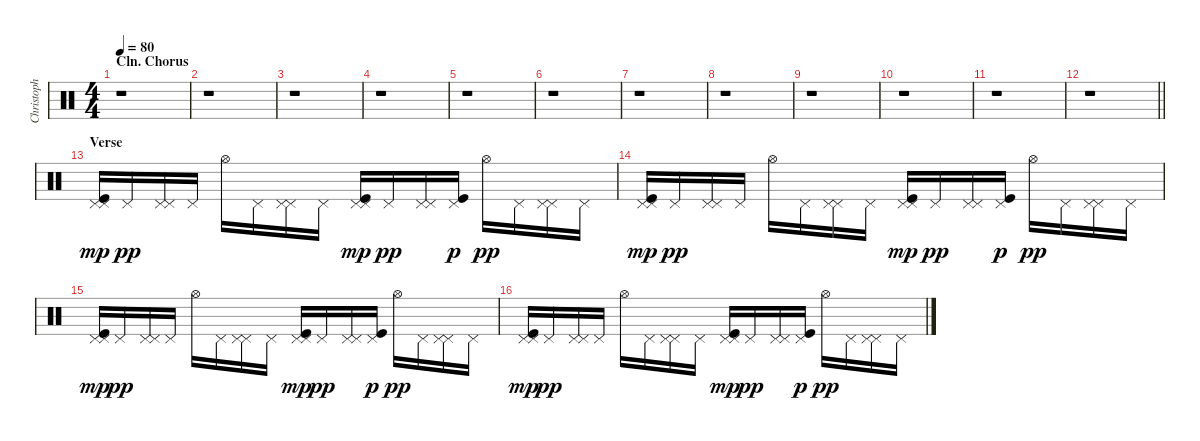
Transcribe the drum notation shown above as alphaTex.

\track ("Christoph Schneider // Drums" "Christoph ") {instrument percussion}
\staff {score}
\articulation defaults
\ts (4 4)
\section ("" "Cln. Chorus")
\tempo 80
\clef neutral
\ks c
r.1{dy mp} |
r.1 |
r.1 |
r.1 |
r.1 |
r.1 |
r.1 |
r.1 |
r.1 |
r.1 |
r.1 |
\barLineRight lightlight
r.1 |
\section ("" "Verse")
("Pedal Hi-Hat (hit)" "Pedal Hi-Hat (hit)" "Kick (hit)").16{volume 11} "Pedal Hi-Hat (hit)".16{dy pp} ("Pedal Hi-Hat (hit)" "Pedal Hi-Hat (hit)").16 "Pedal Hi-Hat (hit)".16 "Hi-Hat (open)".16 "Pedal Hi-Hat (hit)".16 ("Pedal Hi-Hat (hit)" "Pedal Hi-Hat (hit)").16 "Pedal Hi-Hat (hit)".16 ("Pedal Hi-Hat (hit)" "Pedal Hi-Hat (hit)" "Kick (hit)").16{dy mp} "Pedal Hi-Hat (hit)".16{dy pp} ("Pedal Hi-Hat (hit)" "Pedal Hi-Hat (hit)").16 ("Pedal Hi-Hat (hit)" "Kick (hit)").16{dy p} "Hi-Hat (open)".16{dy pp} "Pedal Hi-Hat (hit)".16 ("Pedal Hi-Hat (hit)" "Pedal Hi-Hat (hit)").16 "Pedal Hi-Hat (hit)".16 |
("Pedal Hi-Hat (hit)" "Pedal Hi-Hat (hit)" "Kick (hit)").16{dy mp} "Pedal Hi-Hat (hit)".16{dy pp} ("Pedal Hi-Hat (hit)" "Pedal Hi-Hat (hit)").16 "Pedal Hi-Hat (hit)".16 "Hi-Hat (open)".16 "Pedal Hi-Hat (hit)".16 ("Pedal Hi-Hat (hit)" "Pedal Hi-Hat (hit)").16 "Pedal Hi-Hat (hit)".16 ("Pedal Hi-Hat (hit)" "Pedal Hi-Hat (hit)" "Kick (hit)").16{dy mp} "Pedal Hi-Hat (hit)".16{dy pp} ("Pedal Hi-Hat (hit)" "Pedal Hi-Hat (hit)").16 ("Pedal Hi-Hat (hit)" "Kick (hit)").16{dy p} "Hi-Hat (open)".16{dy pp} "Pedal Hi-Hat (hit)".16 ("Pedal Hi-Hat (hit)" "Pedal Hi-Hat (hit)").16 "Pedal Hi-Hat (hit)".16 |
("Pedal Hi-Hat (hit)" "Pedal Hi-Hat (hit)" "Kick (hit)").16{dy mp} "Pedal Hi-Hat (hit)".16{dy pp} ("Pedal Hi-Hat (hit)" "Pedal Hi-Hat (hit)").16 "Pedal Hi-Hat (hit)".16 "Hi-Hat (open)".16 "Pedal Hi-Hat (hit)".16 ("Pedal Hi-Hat (hit)" "Pedal Hi-Hat (hit)").16 "Pedal Hi-Hat (hit)".16 ("Pedal Hi-Hat (hit)" "Pedal Hi-Hat (hit)" "Kick (hit)").16{dy mp} "Pedal Hi-Hat (hit)".16{dy pp} ("Pedal Hi-Hat (hit)" "Pedal Hi-Hat (hit)").16 ("Pedal Hi-Hat (hit)" "Kick (hit)").16{dy p} "Hi-Hat (open)".16{dy pp} "Pedal Hi-Hat (hit)".16 ("Pedal Hi-Hat (hit)" "Pedal Hi-Hat (hit)").16 "Pedal Hi-Hat (hit)".16 |
("Pedal Hi-Hat (hit)" "Pedal Hi-Hat (hit)" "Kick (hit)").16{dy mp} "Pedal Hi-Hat (hit)".16{dy pp} ("Pedal Hi-Hat (hit)" "Pedal Hi-Hat (hit)").16 "Pedal Hi-Hat (hit)".16 "Hi-Hat (open)".16 "Pedal Hi-Hat (hit)".16 ("Pedal Hi-Hat (hit)" "Pedal Hi-Hat (hit)").16 "Pedal Hi-Hat (hit)".16 ("Pedal Hi-Hat (hit)" "Pedal Hi-Hat (hit)" "Kick (hit)").16{dy mp} "Pedal Hi-Hat (hit)".16{dy pp} ("Pedal Hi-Hat (hit)" "Pedal Hi-Hat (hit)").16 ("Pedal Hi-Hat (hit)" "Kick (hit)").16{dy p} "Hi-Hat (open)".16{dy pp} "Pedal Hi-Hat (hit)".16 ("Pedal Hi-Hat (hit)" "Pedal Hi-Hat (hit)").16 "Pedal Hi-Hat (hit)".16
